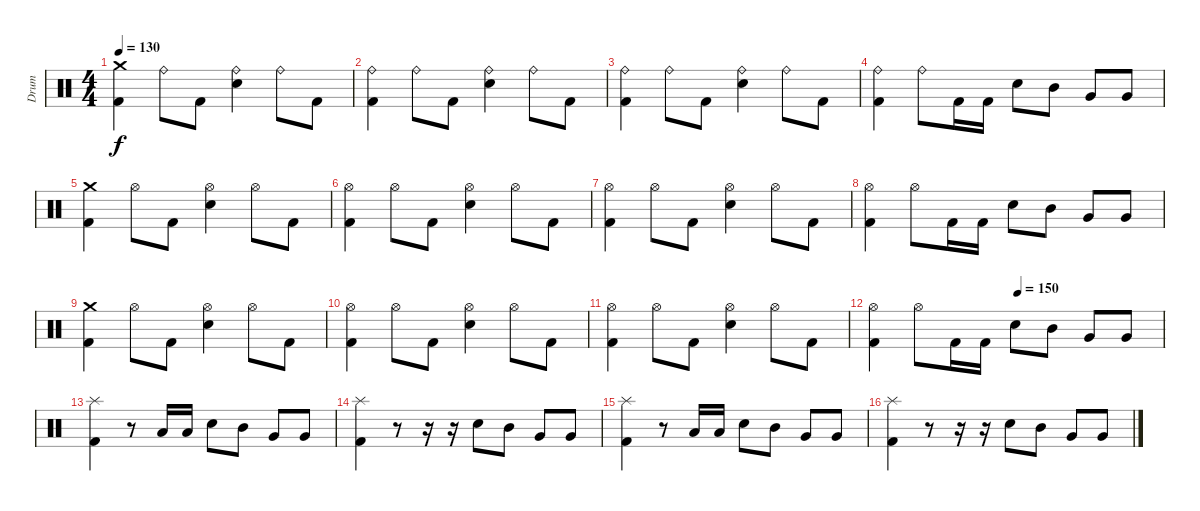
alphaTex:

\track ("Drum" "Drum") {instrument percussion}
\staff {score}
\articulation defaults
\ts (4 4)
\tempo 130
\clef neutral
\ks c
("Crash medium (hit)" "Kick (hit) 2").4{dy f} "Ride (bell)".8 "Kick (hit) 2".8 ("Ride (bell)" "Electric Snare (hit)").4 "Ride (bell)".8 "Kick (hit) 2".8 |
("Ride (bell)" "Kick (hit) 2").4 "Ride (bell)".8 "Kick (hit) 2".8 ("Ride (bell)" "Electric Snare (hit)").4 "Ride (bell)".8 "Kick (hit) 2".8 |
("Ride (bell)" "Kick (hit) 2").4 "Ride (bell)".8 "Kick (hit) 2".8 ("Ride (bell)" "Electric Snare (hit)").4 "Ride (bell)".8 "Kick (hit) 2".8 |
("Ride (bell)" "Kick (hit) 2").4 "Ride (bell)".8 "Kick (hit) 2".16 "Kick (hit) 2".16 "Electric Snare (hit)".8 "Mid Tom (hit)".8 "Very Low Tom (hit)".8 "Very Low Tom (hit)".8 |
("Crash medium (hit)" "Kick (hit) 2").4 "Hi-Hat (open)".8 "Kick (hit) 2".8 ("Hi-Hat (open)" "Electric Snare (hit)").4 "Hi-Hat (open)".8 "Kick (hit) 2".8 |
("Hi-Hat (open)" "Kick (hit) 2").4 "Hi-Hat (open)".8 "Kick (hit) 2".8 ("Hi-Hat (open)" "Electric Snare (hit)").4 "Hi-Hat (open)".8 "Kick (hit) 2".8 |
("Hi-Hat (open)" "Kick (hit) 2").4 "Hi-Hat (open)".8 "Kick (hit) 2".8 ("Hi-Hat (open)" "Electric Snare (hit)").4 "Hi-Hat (open)".8 "Kick (hit) 2".8 |
("Hi-Hat (open)" "Kick (hit) 2").4 "Hi-Hat (open)".8 "Kick (hit) 2".16 "Kick (hit) 2".16 "Electric Snare (hit)".8 "Mid Tom (hit)".8 "Very Low Tom (hit)".8 "Very Low Tom (hit)".8 |
("Crash medium (hit)" "Kick (hit) 2").4 "Hi-Hat (open)".8 "Kick (hit) 2".8 ("Hi-Hat (open)" "Electric Snare (hit)").4 "Hi-Hat (open)".8 "Kick (hit) 2".8 |
("Hi-Hat (open)" "Kick (hit) 2").4 "Hi-Hat (open)".8 "Kick (hit) 2".8 ("Hi-Hat (open)" "Electric Snare (hit)").4 "Hi-Hat (open)".8 "Kick (hit) 2".8 |
("Hi-Hat (open)" "Kick (hit) 2").4 "Hi-Hat (open)".8 "Kick (hit) 2".8 ("Hi-Hat (open)" "Electric Snare (hit)").4 "Hi-Hat (open)".8 "Kick (hit) 2".8 |
\tempo (150 0.5)
("Hi-Hat (open)" "Kick (hit) 2").4 "Hi-Hat (open)".8 "Kick (hit) 2".16 "Kick (hit) 2".16 "Electric Snare (hit)".8 "Mid Tom (hit)".8 "Very Low Tom (hit)".8 "Very Low Tom (hit)".8 |
("Splash (hit)" "Kick (hit) 2").4 r.8 "Low Tom (hit)".16 "Low Tom (hit)".16 "Electric Snare (hit)".8 "Mid Tom (hit)".8 "Very Low Tom (hit)".8 "Very Low Tom (hit)".8 |
("Splash (hit)" "Kick (hit) 2").4 r.8 r.16 r.16 "Electric Snare (hit)".8 "Mid Tom (hit)".8 "Very Low Tom (hit)".8 "Very Low Tom (hit)".8 |
("Splash (hit)" "Kick (hit) 2").4 r.8 "Low Tom (hit)".16 "Low Tom (hit)".16 "Electric Snare (hit)".8 "Mid Tom (hit)".8 "Very Low Tom (hit)".8 "Very Low Tom (hit)".8 |
("Splash (hit)" "Kick (hit) 2").4 r.8 r.16 r.16 "Electric Snare (hit)".8 "Mid Tom (hit)".8 "Very Low Tom (hit)".8 "Very Low Tom (hit)".8
